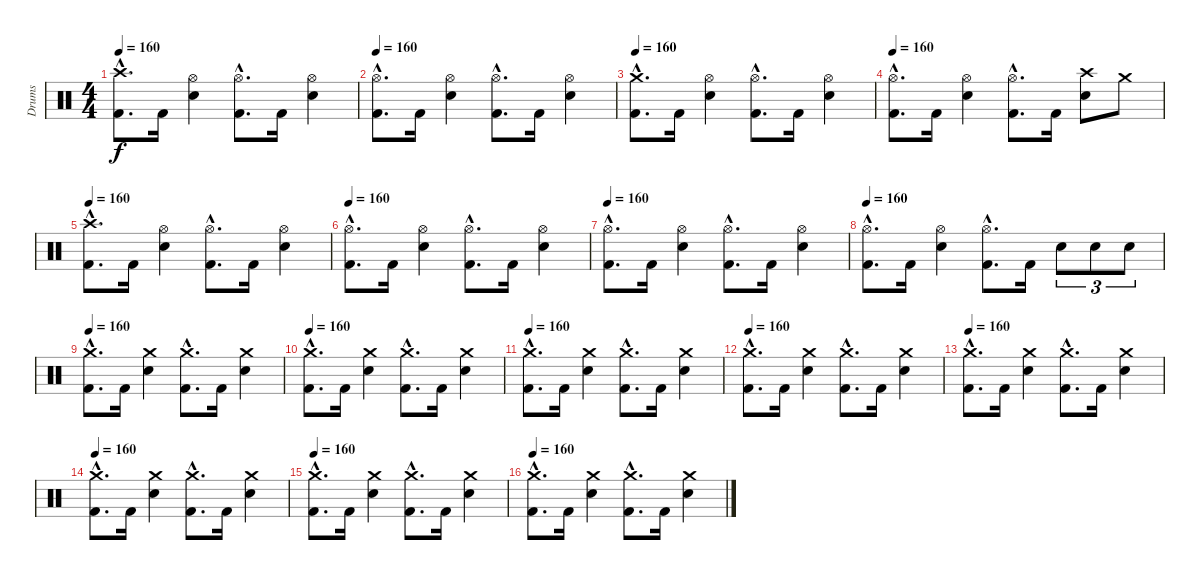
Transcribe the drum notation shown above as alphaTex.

\track ("Drums" "Drums") {instrument percussion}
\staff {score}
\articulation defaults
\ts (4 4)
\tempo 160
\clef neutral
\ks c
("Crash high (hit)"{hac} "Kick (hit) 2"{hac}).8{d dy f} "Kick (hit) 2".16 ("Hi-Hat (open)" "Snare (hit) 2").4 ("Hi-Hat (open)"{hac} "Kick (hit) 2"{hac}).8{d} "Kick (hit) 2".16 ("Hi-Hat (open)" "Snare (hit) 2").4 |
\tempo 160
("Hi-Hat (open)"{hac} "Kick (hit) 2"{hac}).8{d} "Kick (hit) 2".16 ("Hi-Hat (open)" "Snare (hit) 2").4 ("Hi-Hat (open)"{hac} "Kick (hit) 2"{hac}).8{d} "Kick (hit) 2".16 ("Hi-Hat (open)" "Snare (hit) 2").4 |
\tempo 160
("Crash medium (hit)"{hac} "Kick (hit) 2"{hac}).8{d} "Kick (hit) 2".16 ("Hi-Hat (open)" "Snare (hit) 2").4 ("Hi-Hat (open)"{hac} "Kick (hit) 2"{hac}).8{d} "Kick (hit) 2".16 ("Hi-Hat (open)" "Snare (hit) 2").4 |
\tempo 160
("Hi-Hat (open)"{hac} "Kick (hit) 2"{hac}).8{d} "Kick (hit) 2".16 ("Hi-Hat (open)" "Snare (hit) 2").4 ("Hi-Hat (open)"{hac} "Kick (hit) 2"{hac}).8{d} "Kick (hit) 2".16 ("Crash high (hit)" "Snare (hit) 2").8 "Crash medium (hit)".8 |
\tempo 160
("Crash high (hit)"{hac} "Kick (hit) 2"{hac}).8{d} "Kick (hit) 2".16 ("Hi-Hat (open)" "Snare (hit) 2").4 ("Hi-Hat (open)"{hac} "Kick (hit) 2"{hac}).8{d} "Kick (hit) 2".16 ("Hi-Hat (open)" "Snare (hit) 2").4 |
\tempo 160
("Hi-Hat (open)"{hac} "Kick (hit) 2"{hac}).8{d} "Kick (hit) 2".16 ("Hi-Hat (open)" "Snare (hit) 2").4 ("Hi-Hat (open)"{hac} "Kick (hit) 2"{hac}).8{d} "Kick (hit) 2".16 ("Hi-Hat (open)" "Snare (hit) 2").4 |
\tempo 160
("Hi-Hat (open)"{hac} "Kick (hit) 2"{hac}).8{d} "Kick (hit) 2".16 ("Hi-Hat (open)" "Snare (hit) 2").4 ("Hi-Hat (open)"{hac} "Kick (hit) 2"{hac}).8{d} "Kick (hit) 2".16 ("Hi-Hat (open)" "Snare (hit) 2").4 |
\tempo 160
("Hi-Hat (open)"{hac} "Kick (hit) 2"{hac}).8{d} "Kick (hit) 2".16 ("Hi-Hat (open)" "Snare (hit) 2").4 ("Hi-Hat (open)"{hac} "Kick (hit) 2"{hac}).8{d} "Kick (hit) 2".16 "Snare (hit) 2".8{tu (3 2)} "Snare (hit) 2".8{tu (3 2)} "Snare (hit) 2".8{tu (3 2)} |
\tempo 160
("Crash medium (hit)"{hac} "Kick (hit) 2"{hac}).8{d} "Kick (hit) 2".16 ("Crash medium (hit)" "Snare (hit) 2").4 ("Crash medium (hit)"{hac} "Kick (hit) 2"{hac}).8{d} "Kick (hit) 2".16 ("Crash medium (hit)" "Snare (hit) 2").4 |
\tempo 160
("Crash medium (hit)"{hac} "Kick (hit) 2"{hac}).8{d} "Kick (hit) 2".16 ("Crash medium (hit)" "Snare (hit) 2").4 ("Crash medium (hit)"{hac} "Kick (hit) 2"{hac}).8{d} "Kick (hit) 2".16 ("Crash medium (hit)" "Snare (hit) 2").4 |
\tempo 160
("Crash medium (hit)"{hac} "Kick (hit) 2"{hac}).8{d} "Kick (hit) 2".16 ("Crash medium (hit)" "Snare (hit) 2").4 ("Crash medium (hit)"{hac} "Kick (hit) 2"{hac}).8{d} "Kick (hit) 2".16 ("Crash medium (hit)" "Snare (hit) 2").4 |
\tempo 160
("Crash medium (hit)"{hac} "Kick (hit) 2"{hac}).8{d} "Kick (hit) 2".16 ("Crash medium (hit)" "Snare (hit) 2").4 ("Crash medium (hit)"{hac} "Kick (hit) 2"{hac}).8{d} "Kick (hit) 2".16 ("Crash medium (hit)" "Snare (hit) 2").4 |
\tempo 160
("Crash medium (hit)"{hac} "Kick (hit) 2"{hac}).8{d} "Kick (hit) 2".16 ("Crash medium (hit)" "Snare (hit) 2").4 ("Crash medium (hit)"{hac} "Kick (hit) 2"{hac}).8{d} "Kick (hit) 2".16 ("Crash medium (hit)" "Snare (hit) 2").4 |
\tempo 160
("Crash medium (hit)"{hac} "Kick (hit) 2"{hac}).8{d} "Kick (hit) 2".16 ("Crash medium (hit)" "Snare (hit) 2").4 ("Crash medium (hit)"{hac} "Kick (hit) 2"{hac}).8{d} "Kick (hit) 2".16 ("Crash medium (hit)" "Snare (hit) 2").4 |
\tempo 160
("Crash medium (hit)"{hac} "Kick (hit) 2"{hac}).8{d} "Kick (hit) 2".16 ("Crash medium (hit)" "Snare (hit) 2").4 ("Crash medium (hit)"{hac} "Kick (hit) 2"{hac}).8{d} "Kick (hit) 2".16 ("Crash medium (hit)" "Snare (hit) 2").4 |
\tempo 160
("Crash medium (hit)"{hac} "Kick (hit) 2"{hac}).8{d} "Kick (hit) 2".16 ("Crash medium (hit)" "Snare (hit) 2").4 ("Crash medium (hit)"{hac} "Kick (hit) 2"{hac}).8{d} "Kick (hit) 2".16 ("Crash medium (hit)" "Snare (hit) 2").4
